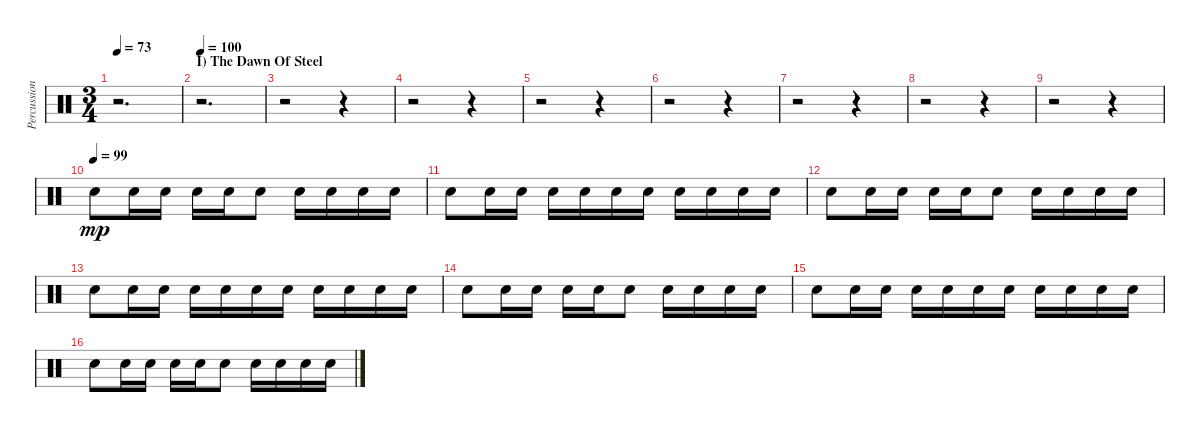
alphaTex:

\track ("Percussion" "Percussion") {instrument percussion}
\staff {score}
\articulation defaults
\ts (3 4)
\tempo 73
\clef neutral
\ks c
r.2{d dy mp} |
\section ("" "I) The Dawn Of Steel")
\tempo 100
r.2{d} |
r.2 r.4 |
r.2 r.4 |
r.2 r.4 |
r.2 r.4 |
r.2 r.4 |
r.2 r.4 |
r.2 r.4 |
\tempo (99)
"Electric Snare (hit)".8 "Electric Snare (hit)".16 "Electric Snare (hit)".16 "Electric Snare (hit)".16 "Electric Snare (hit)".16 "Electric Snare (hit)".8 "Electric Snare (hit)".16 "Electric Snare (hit)".16 "Electric Snare (hit)".16 "Electric Snare (hit)".16 |
"Electric Snare (hit)".8 "Electric Snare (hit)".16 "Electric Snare (hit)".16 "Electric Snare (hit)".16 "Electric Snare (hit)".16 "Electric Snare (hit)".16 "Electric Snare (hit)".16 "Electric Snare (hit)".16 "Electric Snare (hit)".16 "Electric Snare (hit)".16 "Electric Snare (hit)".16 |
"Electric Snare (hit)".8 "Electric Snare (hit)".16 "Electric Snare (hit)".16 "Electric Snare (hit)".16 "Electric Snare (hit)".16 "Electric Snare (hit)".8 "Electric Snare (hit)".16 "Electric Snare (hit)".16 "Electric Snare (hit)".16 "Electric Snare (hit)".16 |
"Electric Snare (hit)".8 "Electric Snare (hit)".16 "Electric Snare (hit)".16 "Electric Snare (hit)".16 "Electric Snare (hit)".16 "Electric Snare (hit)".16 "Electric Snare (hit)".16 "Electric Snare (hit)".16 "Electric Snare (hit)".16 "Electric Snare (hit)".16 "Electric Snare (hit)".16 |
"Electric Snare (hit)".8 "Electric Snare (hit)".16 "Electric Snare (hit)".16 "Electric Snare (hit)".16 "Electric Snare (hit)".16 "Electric Snare (hit)".8 "Electric Snare (hit)".16 "Electric Snare (hit)".16 "Electric Snare (hit)".16 "Electric Snare (hit)".16 |
"Electric Snare (hit)".8 "Electric Snare (hit)".16 "Electric Snare (hit)".16 "Electric Snare (hit)".16 "Electric Snare (hit)".16 "Electric Snare (hit)".16 "Electric Snare (hit)".16 "Electric Snare (hit)".16 "Electric Snare (hit)".16 "Electric Snare (hit)".16 "Electric Snare (hit)".16 |
"Electric Snare (hit)".8 "Electric Snare (hit)".16 "Electric Snare (hit)".16 "Electric Snare (hit)".16 "Electric Snare (hit)".16 "Electric Snare (hit)".8 "Electric Snare (hit)".16 "Electric Snare (hit)".16 "Electric Snare (hit)".16 "Electric Snare (hit)".16
